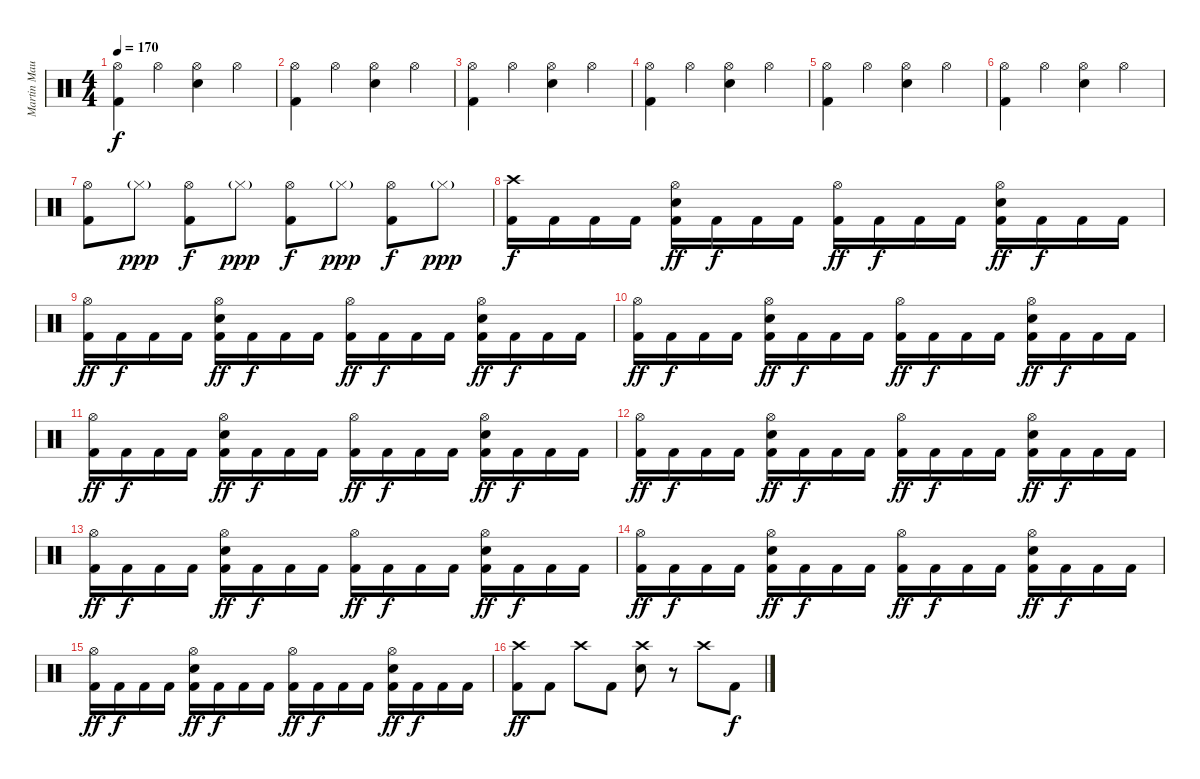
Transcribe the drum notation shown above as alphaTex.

\track ("Martin Maurais " "Martin Mau") {instrument percussion}
\staff {score}
\articulation defaults
\ts (4 4)
\tempo 170
\clef neutral
\ks c
("Hi-Hat (open)" "Kick (hit) 2").4{dy f} "Hi-Hat (open)".4 ("Hi-Hat (open)" "Snare (hit) 2").4 "Hi-Hat (open)".4 |
("Hi-Hat (open)" "Kick (hit) 2").4 "Hi-Hat (open)".4 ("Hi-Hat (open)" "Snare (hit) 2").4 "Hi-Hat (open)".4 |
("Hi-Hat (open)" "Kick (hit) 2").4 "Hi-Hat (open)".4 ("Hi-Hat (open)" "Snare (hit) 2").4 "Hi-Hat (open)".4 |
("Hi-Hat (open)" "Kick (hit) 2").4 "Hi-Hat (open)".4 ("Hi-Hat (open)" "Snare (hit) 2").4 "Hi-Hat (open)".4 |
("Hi-Hat (open)" "Kick (hit) 2").4 "Hi-Hat (open)".4 ("Hi-Hat (open)" "Snare (hit) 2").4 "Hi-Hat (open)".4 |
("Hi-Hat (open)" "Kick (hit) 2").4 "Hi-Hat (open)".4 ("Hi-Hat (open)" "Snare (hit) 2").4 "Hi-Hat (open)".4 |
("Hi-Hat (open)" "Kick (hit) 2").8 "Hi-Hat (closed)"{g}.8{dy ppp} ("Hi-Hat (open)" "Kick (hit) 2").8{dy f} "Hi-Hat (closed)"{g}.8{dy ppp} ("Hi-Hat (open)" "Kick (hit) 2").8{dy f} "Hi-Hat (closed)"{g}.8{dy ppp} ("Hi-Hat (open)" "Kick (hit) 2").8{dy f} "Hi-Hat (closed)"{g}.8{dy ppp} |
("Crash high (hit)" "Kick (hit) 2").16{dy f} "Kick (hit) 2".16 "Kick (hit) 2".16 "Kick (hit) 2".16 ("Hi-Hat (open)" "Snare (hit) 2" "Kick (hit) 2").16{dy ff} "Kick (hit) 2".16{dy f} "Kick (hit) 2".16 "Kick (hit) 2".16 ("Hi-Hat (open)" "Kick (hit) 2").16{dy ff} "Kick (hit) 2".16{dy f} "Kick (hit) 2".16 "Kick (hit) 2".16 ("Hi-Hat (open)" "Snare (hit) 2" "Kick (hit) 2").16{dy ff} "Kick (hit) 2".16{dy f} "Kick (hit) 2".16 "Kick (hit) 2".16 |
("Hi-Hat (open)" "Kick (hit) 2").16{dy ff} "Kick (hit) 2".16{dy f} "Kick (hit) 2".16 "Kick (hit) 2".16 ("Hi-Hat (open)" "Snare (hit) 2" "Kick (hit) 2").16{dy ff} "Kick (hit) 2".16{dy f} "Kick (hit) 2".16 "Kick (hit) 2".16 ("Hi-Hat (open)" "Kick (hit) 2").16{dy ff} "Kick (hit) 2".16{dy f} "Kick (hit) 2".16 "Kick (hit) 2".16 ("Hi-Hat (open)" "Snare (hit) 2" "Kick (hit) 2").16{dy ff} "Kick (hit) 2".16{dy f} "Kick (hit) 2".16 "Kick (hit) 2".16 |
("Hi-Hat (open)" "Kick (hit) 2").16{dy ff} "Kick (hit) 2".16{dy f} "Kick (hit) 2".16 "Kick (hit) 2".16 ("Hi-Hat (open)" "Snare (hit) 2" "Kick (hit) 2").16{dy ff} "Kick (hit) 2".16{dy f} "Kick (hit) 2".16 "Kick (hit) 2".16 ("Hi-Hat (open)" "Kick (hit) 2").16{dy ff} "Kick (hit) 2".16{dy f} "Kick (hit) 2".16 "Kick (hit) 2".16 ("Hi-Hat (open)" "Snare (hit) 2" "Kick (hit) 2").16{dy ff} "Kick (hit) 2".16{dy f} "Kick (hit) 2".16 "Kick (hit) 2".16 |
("Hi-Hat (open)" "Kick (hit) 2").16{dy ff} "Kick (hit) 2".16{dy f} "Kick (hit) 2".16 "Kick (hit) 2".16 ("Hi-Hat (open)" "Snare (hit) 2" "Kick (hit) 2").16{dy ff} "Kick (hit) 2".16{dy f} "Kick (hit) 2".16 "Kick (hit) 2".16 ("Hi-Hat (open)" "Kick (hit) 2").16{dy ff} "Kick (hit) 2".16{dy f} "Kick (hit) 2".16 "Kick (hit) 2".16 ("Hi-Hat (open)" "Snare (hit) 2" "Kick (hit) 2").16{dy ff} "Kick (hit) 2".16{dy f} "Kick (hit) 2".16 "Kick (hit) 2".16 |
("Hi-Hat (open)" "Kick (hit) 2").16{dy ff} "Kick (hit) 2".16{dy f} "Kick (hit) 2".16 "Kick (hit) 2".16 ("Hi-Hat (open)" "Snare (hit) 2" "Kick (hit) 2").16{dy ff} "Kick (hit) 2".16{dy f} "Kick (hit) 2".16 "Kick (hit) 2".16 ("Hi-Hat (open)" "Kick (hit) 2").16{dy ff} "Kick (hit) 2".16{dy f} "Kick (hit) 2".16 "Kick (hit) 2".16 ("Hi-Hat (open)" "Snare (hit) 2" "Kick (hit) 2").16{dy ff} "Kick (hit) 2".16{dy f} "Kick (hit) 2".16 "Kick (hit) 2".16 |
("Hi-Hat (open)" "Kick (hit) 2").16{dy ff} "Kick (hit) 2".16{dy f} "Kick (hit) 2".16 "Kick (hit) 2".16 ("Hi-Hat (open)" "Snare (hit) 2" "Kick (hit) 2").16{dy ff} "Kick (hit) 2".16{dy f} "Kick (hit) 2".16 "Kick (hit) 2".16 ("Hi-Hat (open)" "Kick (hit) 2").16{dy ff} "Kick (hit) 2".16{dy f} "Kick (hit) 2".16 "Kick (hit) 2".16 ("Hi-Hat (open)" "Snare (hit) 2" "Kick (hit) 2").16{dy ff} "Kick (hit) 2".16{dy f} "Kick (hit) 2".16 "Kick (hit) 2".16 |
("Hi-Hat (open)" "Kick (hit) 2").16{dy ff} "Kick (hit) 2".16{dy f} "Kick (hit) 2".16 "Kick (hit) 2".16 ("Hi-Hat (open)" "Snare (hit) 2" "Kick (hit) 2").16{dy ff} "Kick (hit) 2".16{dy f} "Kick (hit) 2".16 "Kick (hit) 2".16 ("Hi-Hat (open)" "Kick (hit) 2").16{dy ff} "Kick (hit) 2".16{dy f} "Kick (hit) 2".16 "Kick (hit) 2".16 ("Hi-Hat (open)" "Snare (hit) 2" "Kick (hit) 2").16{dy ff} "Kick (hit) 2".16{dy f} "Kick (hit) 2".16 "Kick (hit) 2".16 |
("Hi-Hat (open)" "Kick (hit) 2").16{dy ff} "Kick (hit) 2".16{dy f} "Kick (hit) 2".16 "Kick (hit) 2".16 ("Hi-Hat (open)" "Snare (hit) 2" "Kick (hit) 2").16{dy ff} "Kick (hit) 2".16{dy f} "Kick (hit) 2".16 "Kick (hit) 2".16 ("Hi-Hat (open)" "Kick (hit) 2").16{dy ff} "Kick (hit) 2".16{dy f} "Kick (hit) 2".16 "Kick (hit) 2".16 ("Hi-Hat (open)" "Snare (hit) 2" "Kick (hit) 2").16{dy ff} "Kick (hit) 2".16{dy f} "Kick (hit) 2".16 "Kick (hit) 2".16 |
("Crash high (hit)" "Kick (hit) 2").8{dy ff} "Kick (hit) 2".8 "Crash high (hit)".8 "Kick (hit) 2".8 ("Crash high (hit)" "Snare (hit) 2").8 r.8 "Crash high (hit)".8 "Kick (hit) 2".8{dy f}
